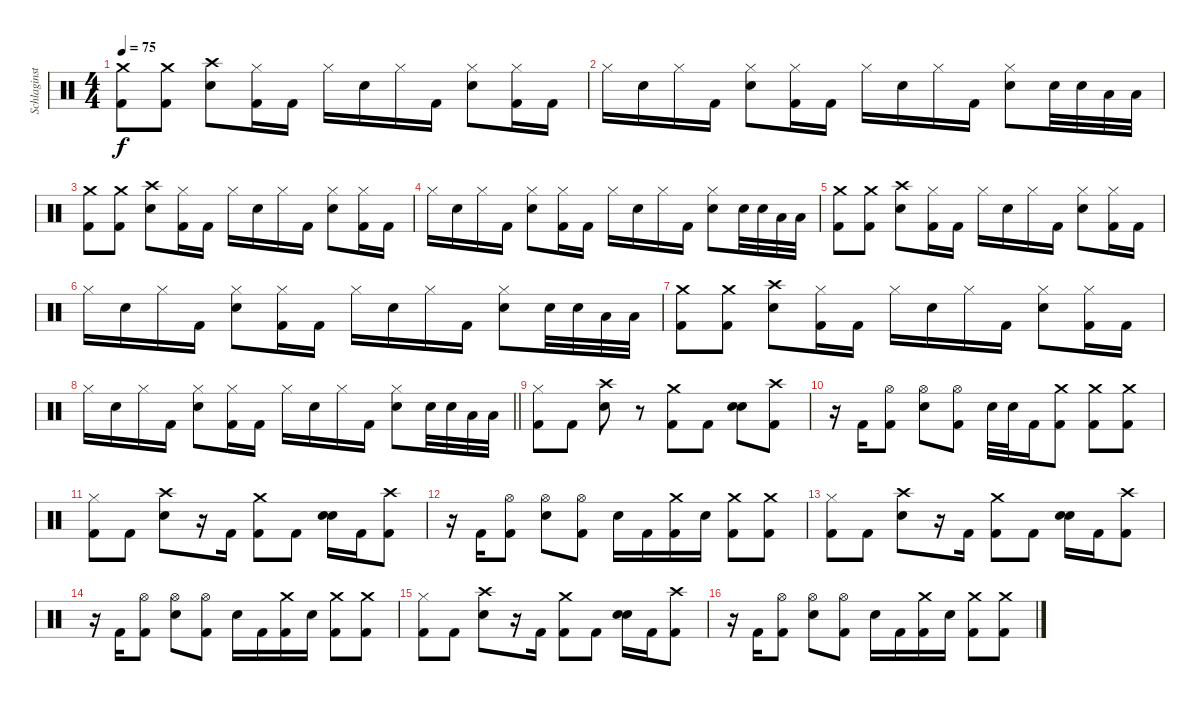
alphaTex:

\track ("Schlaginstrumente - Auswahl" "Schlaginst") {instrument percussion}
\staff {score}
\articulation defaults
\ts (4 4)
\tempo 75
\clef neutral
\ks c
("Crash medium (hit)" "Kick (hit) 2").8{dy f} ("Crash medium (hit)" "Kick (hit) 2").8 ("Crash high (hit)" "Snare (hit) 2").8 ("Hi-Hat (closed)" "Kick (hit) 2").16 "Kick (hit) 2".16 "Hi-Hat (closed)".16 "Snare (hit) 2".16 "Hi-Hat (closed)".16 "Kick (hit) 2".16 ("Hi-Hat (closed)" "Snare (hit) 2").8 ("Hi-Hat (closed)" "Kick (hit) 2").16 "Kick (hit) 2".16 |
"Hi-Hat (closed)".16 "Snare (hit) 2".16 "Hi-Hat (closed)".16 "Kick (hit) 2".16 ("Hi-Hat (closed)" "Snare (hit) 2").8 ("Hi-Hat (closed)" "Kick (hit) 2").16 "Kick (hit) 2".16 "Hi-Hat (closed)".16 "Snare (hit) 2".16 "Hi-Hat (closed)".16 "Kick (hit) 2".16 ("Hi-Hat (closed)" "Snare (hit) 2").8 "Snare (hit) 2".32 "Snare (hit) 2".32 "Low Tom (hit)".32 "Low Tom (hit)".32 |
("Crash medium (hit)" "Kick (hit) 2").8 ("Crash medium (hit)" "Kick (hit) 2").8 ("Crash high (hit)" "Snare (hit) 2").8 ("Hi-Hat (closed)" "Kick (hit) 2").16 "Kick (hit) 2".16 "Hi-Hat (closed)".16 "Snare (hit) 2".16 "Hi-Hat (closed)".16 "Kick (hit) 2".16 ("Hi-Hat (closed)" "Snare (hit) 2").8 ("Hi-Hat (closed)" "Kick (hit) 2").16 "Kick (hit) 2".16 |
"Hi-Hat (closed)".16 "Snare (hit) 2".16 "Hi-Hat (closed)".16 "Kick (hit) 2".16 ("Hi-Hat (closed)" "Snare (hit) 2").8 ("Hi-Hat (closed)" "Kick (hit) 2").16 "Kick (hit) 2".16 "Hi-Hat (closed)".16 "Snare (hit) 2".16 "Hi-Hat (closed)".16 "Kick (hit) 2".16 ("Hi-Hat (closed)" "Snare (hit) 2").8 "Snare (hit) 2".32 "Snare (hit) 2".32 "Low Tom (hit)".32 "Low Tom (hit)".32 |
("Crash medium (hit)" "Kick (hit) 2").8 ("Crash medium (hit)" "Kick (hit) 2").8 ("Crash high (hit)" "Snare (hit) 2").8 ("Hi-Hat (closed)" "Kick (hit) 2").16 "Kick (hit) 2".16 "Hi-Hat (closed)".16 "Snare (hit) 2".16 "Hi-Hat (closed)".16 "Kick (hit) 2".16 ("Hi-Hat (closed)" "Snare (hit) 2").8 ("Hi-Hat (closed)" "Kick (hit) 2").16 "Kick (hit) 2".16 |
"Hi-Hat (closed)".16 "Snare (hit) 2".16 "Hi-Hat (closed)".16 "Kick (hit) 2".16 ("Hi-Hat (closed)" "Snare (hit) 2").8 ("Hi-Hat (closed)" "Kick (hit) 2").16 "Kick (hit) 2".16 "Hi-Hat (closed)".16 "Snare (hit) 2".16 "Hi-Hat (closed)".16 "Kick (hit) 2".16 ("Hi-Hat (closed)" "Snare (hit) 2").8 "Snare (hit) 2".32 "Snare (hit) 2".32 "Low Tom (hit)".32 "Low Tom (hit)".32 |
("Crash medium (hit)" "Kick (hit) 2").8 ("Crash medium (hit)" "Kick (hit) 2").8 ("Crash high (hit)" "Snare (hit) 2").8 ("Hi-Hat (closed)" "Kick (hit) 2").16 "Kick (hit) 2".16 "Hi-Hat (closed)".16 "Snare (hit) 2".16 "Hi-Hat (closed)".16 "Kick (hit) 2".16 ("Hi-Hat (closed)" "Snare (hit) 2").8 ("Hi-Hat (closed)" "Kick (hit) 2").16 "Kick (hit) 2".16 |
\barLineRight lightlight "Hi-Hat (closed)".16 "Snare (hit) 2".16 "Hi-Hat (closed)".16 "Kick (hit) 2".16
("Hi-Hat (closed)" "Snare (hit) 2").8 ("Hi-Hat (closed)" "Kick (hit) 2").16 "Kick (hit) 2".16 "Hi-Hat (closed)".16 "Snare (hit) 2".16 "Hi-Hat (closed)".16 "Kick (hit) 2".16 ("Hi-Hat (closed)" "Snare (hit) 2").8 "Snare (hit) 2".32 "Snare (hit) 2".32 "Low Tom (hit)".32 "Low Tom (hit)".32 |
("Hi-Hat (closed)" "Kick (hit) 2").8 "Kick (hit) 2".8 ("Crash high (hit)" "Snare (hit) 2").8 r.8 ("Crash medium (hit)" "Kick (hit) 2").8 "Kick (hit) 2".8 ("Snare (hit) 2" "Snare (hit) 2").8{bd 120} ("Crash high (hit)" "Kick (hit) 2").8 |
r.16 "Kick (hit) 2".16 ("Hi-Hat (open)" "Kick (hit) 2").8 ("Hi-Hat (open)" "Snare (hit) 2").8 ("Hi-Hat (open)" "Kick (hit) 2").8 "Snare (hit) 2".32 "Snare (hit) 2".32 "Kick (hit) 2".16 ("Crash medium (hit)" "Kick (hit) 2").8 ("Crash medium (hit)" "Kick (hit) 2").8 ("Crash medium (hit)" "Kick (hit) 2").8 |
("Hi-Hat (closed)" "Kick (hit) 2").8 "Kick (hit) 2".8 ("Crash high (hit)" "Snare (hit) 2").8 r.16 "Kick (hit) 2".16 ("Crash medium (hit)" "Kick (hit) 2").8 "Kick (hit) 2".8 ("Snare (hit) 2" "Snare (hit) 2").16{bd 120} "Kick (hit) 2".16 ("Crash high (hit)" "Kick (hit) 2").8 |
r.16 "Kick (hit) 2".16 ("Hi-Hat (open)" "Kick (hit) 2").8 ("Hi-Hat (open)" "Snare (hit) 2").8 ("Hi-Hat (open)" "Kick (hit) 2").8 "Snare (hit) 2".16 "Kick (hit) 2".16 ("Crash medium (hit)" "Kick (hit) 2").16 "Snare (hit) 2".16 ("Crash medium (hit)" "Kick (hit) 2").8 ("Crash medium (hit)" "Kick (hit) 2").8 |
("Hi-Hat (closed)" "Kick (hit) 2").8 "Kick (hit) 2".8 ("Crash high (hit)" "Snare (hit) 2").8 r.16 "Kick (hit) 2".16 ("Crash medium (hit)" "Kick (hit) 2").8 "Kick (hit) 2".8 ("Snare (hit) 2" "Snare (hit) 2").16{bd 120} "Kick (hit) 2".16 ("Crash high (hit)" "Kick (hit) 2").8 |
r.16 "Kick (hit) 2".16 ("Hi-Hat (open)" "Kick (hit) 2").8 ("Hi-Hat (open)" "Snare (hit) 2").8 ("Hi-Hat (open)" "Kick (hit) 2").8 "Snare (hit) 2".16 "Kick (hit) 2".16 ("Crash medium (hit)" "Kick (hit) 2").16 "Snare (hit) 2".16 ("Crash medium (hit)" "Kick (hit) 2").8 ("Crash medium (hit)" "Kick (hit) 2").8 |
("Hi-Hat (closed)" "Kick (hit) 2").8 "Kick (hit) 2".8 ("Crash high (hit)" "Snare (hit) 2").8 r.16 "Kick (hit) 2".16 ("Crash medium (hit)" "Kick (hit) 2").8 "Kick (hit) 2".8 ("Snare (hit) 2" "Snare (hit) 2").16{bd 120} "Kick (hit) 2".16 ("Crash high (hit)" "Kick (hit) 2").8 |
r.16 "Kick (hit) 2".16 ("Hi-Hat (open)" "Kick (hit) 2").8 ("Hi-Hat (open)" "Snare (hit) 2").8 ("Hi-Hat (open)" "Kick (hit) 2").8 "Snare (hit) 2".16 "Kick (hit) 2".16 ("Crash medium (hit)" "Kick (hit) 2").16 "Snare (hit) 2".16 ("Crash medium (hit)" "Kick (hit) 2").8 ("Crash medium (hit)" "Kick (hit) 2").8
